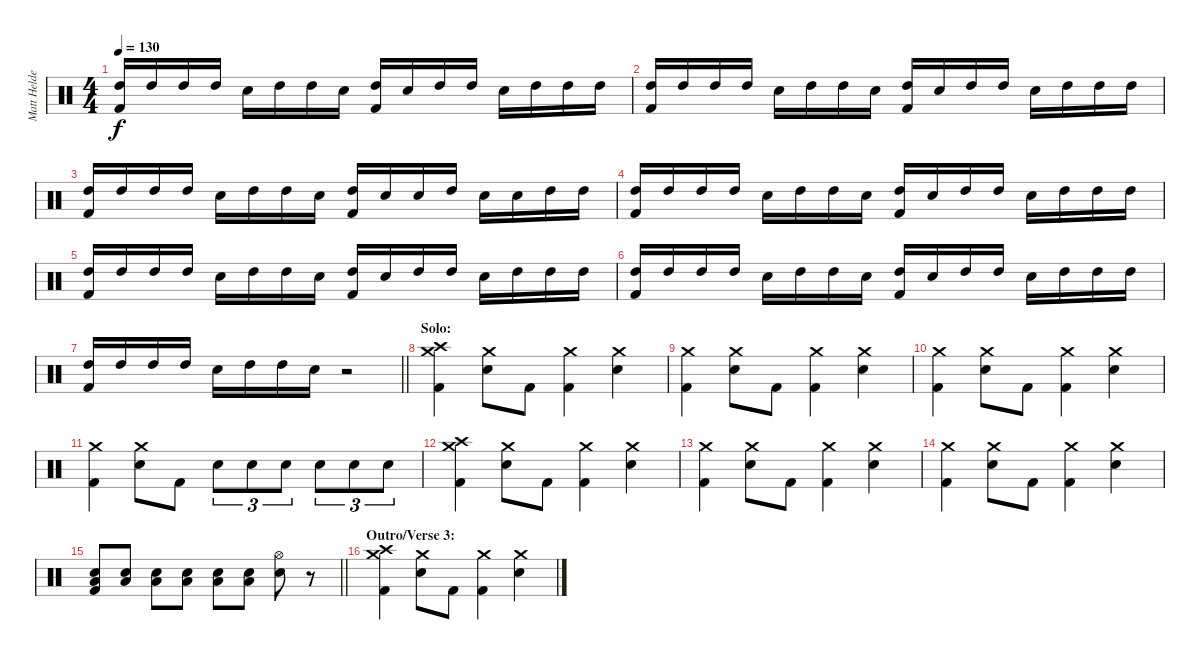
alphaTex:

\track ("Matt Helders (Percussion)" "Matt Helde") {instrument percussion}
\staff {score}
\articulation defaults
\ts (4 4)
\tempo 130
\clef neutral
\ks c
("High Tom (hit)" "Kick (hit) 2").16{dy f} "High Tom (hit)".16 "High Tom (hit)".16 "High Tom (hit)".16 "Snare (hit) 2".16 "High Tom (hit)".16 "High Tom (hit)".16 "Snare (hit) 2".16 ("High Tom (hit)" "Kick (hit) 2").16 "Snare (hit) 2".16 "High Tom (hit)".16 "High Tom (hit)".16 "Snare (hit) 2".16 "High Tom (hit)".16 "High Tom (hit)".16 "High Tom (hit)".16 |
("High Tom (hit)" "Kick (hit) 2").16 "High Tom (hit)".16 "High Tom (hit)".16 "High Tom (hit)".16 "Snare (hit) 2".16 "High Tom (hit)".16 "High Tom (hit)".16 "Snare (hit) 2".16 ("High Tom (hit)" "Kick (hit) 2").16 "Snare (hit) 2".16 "High Tom (hit)".16 "High Tom (hit)".16 "Snare (hit) 2".16 "High Tom (hit)".16 "High Tom (hit)".16 "High Tom (hit)".16 |
("High Tom (hit)" "Kick (hit) 2").16 "High Tom (hit)".16 "High Tom (hit)".16 "High Tom (hit)".16 "Snare (hit) 2".16 "High Tom (hit)".16 "High Tom (hit)".16 "Snare (hit) 2".16 ("High Tom (hit)" "Kick (hit) 2").16 "Snare (hit) 2".16 "Snare (hit) 2".16 "High Tom (hit)".16 "Snare (hit) 2".16 "Snare (hit) 2".16 "High Tom (hit)".16 "High Tom (hit)".16 |
("High Tom (hit)" "Kick (hit) 2").16 "High Tom (hit)".16 "High Tom (hit)".16 "High Tom (hit)".16 "Snare (hit) 2".16 "High Tom (hit)".16 "High Tom (hit)".16 "Snare (hit) 2".16 ("High Tom (hit)" "Kick (hit) 2").16 "Snare (hit) 2".16 "High Tom (hit)".16 "High Tom (hit)".16 "Snare (hit) 2".16 "High Tom (hit)".16 "High Tom (hit)".16 "High Tom (hit)".16 |
("High Tom (hit)" "Kick (hit) 2").16 "High Tom (hit)".16 "High Tom (hit)".16 "High Tom (hit)".16 "Snare (hit) 2".16 "High Tom (hit)".16 "High Tom (hit)".16 "Snare (hit) 2".16 ("High Tom (hit)" "Kick (hit) 2").16 "Snare (hit) 2".16 "High Tom (hit)".16 "High Tom (hit)".16 "Snare (hit) 2".16 "High Tom (hit)".16 "High Tom (hit)".16 "High Tom (hit)".16 |
("High Tom (hit)" "Kick (hit) 2").16 "High Tom (hit)".16 "High Tom (hit)".16 "High Tom (hit)".16 "Snare (hit) 2".16 "High Tom (hit)".16 "High Tom (hit)".16 "Snare (hit) 2".16 ("High Tom (hit)" "Kick (hit) 2").16 "Snare (hit) 2".16 "High Tom (hit)".16 "High Tom (hit)".16 "Snare (hit) 2".16 "High Tom (hit)".16 "High Tom (hit)".16 "High Tom (hit)".16 |
\barLineRight lightlight
("High Tom (hit)" "Kick (hit) 2").16 "High Tom (hit)".16 "High Tom (hit)".16 "High Tom (hit)".16 "Snare (hit) 2".16 "High Tom (hit)".16 "High Tom (hit)".16 "Snare (hit) 2".16 r.2 |
\section ("" "Solo:")
("Crash medium (hit)" "Crash high (hit)" "Kick (hit) 2").4 ("Crash medium (hit)" "Snare (hit) 2").8 "Kick (hit) 2".8 ("Crash medium (hit)" "Kick (hit) 2").4 ("Crash medium (hit)" "Snare (hit) 2").4 |
("Crash medium (hit)" "Kick (hit) 2").4 ("Crash medium (hit)" "Snare (hit) 2").8 "Kick (hit) 2".8 ("Crash medium (hit)" "Kick (hit) 2").4 ("Crash medium (hit)" "Snare (hit) 2").4 |
("Crash medium (hit)" "Kick (hit) 2").4 ("Crash medium (hit)" "Snare (hit) 2").8 "Kick (hit) 2".8 ("Crash medium (hit)" "Kick (hit) 2").4 ("Crash medium (hit)" "Snare (hit) 2").4 |
("Crash medium (hit)" "Kick (hit) 2").4 ("Crash medium (hit)" "Snare (hit) 2").8 "Kick (hit) 2".8 "Snare (hit) 2".8{tu (3 2)} "Snare (hit) 2".8{tu (3 2)} "Snare (hit) 2".8{tu (3 2)} "Snare (hit) 2".8{tu (3 2)} "Snare (hit) 2".8{tu (3 2)} "Snare (hit) 2".8{tu (3 2)} |
("Crash medium (hit)" "Crash high (hit)" "Kick (hit) 2").4 ("Crash medium (hit)" "Snare (hit) 2").8 "Kick (hit) 2".8 ("Crash medium (hit)" "Kick (hit) 2").4 ("Crash medium (hit)" "Snare (hit) 2").4 |
("Crash medium (hit)" "Kick (hit) 2").4 ("Crash medium (hit)" "Snare (hit) 2").8 "Kick (hit) 2".8 ("Crash medium (hit)" "Kick (hit) 2").4 ("Crash medium (hit)" "Snare (hit) 2").4 |
("Crash medium (hit)" "Kick (hit) 2").4 ("Crash medium (hit)" "Snare (hit) 2").8 "Kick (hit) 2".8 ("Crash medium (hit)" "Kick (hit) 2").4 ("Crash medium (hit)" "Snare (hit) 2").4 |
\barLineRight lightlight
("Snare (hit) 2" "Low Tom (hit)" "Kick (hit) 2").8 ("Snare (hit) 2" "Low Tom (hit)").8 ("Snare (hit) 2" "Low Tom (hit)").8 ("Snare (hit) 2" "Low Tom (hit)").8 ("Snare (hit) 2" "Low Tom (hit)").8 ("Snare (hit) 2" "Low Tom (hit)").8 ("Hi-Hat (open)" "Snare (hit) 2").8 r.8 |
\section ("" "Outro/Verse 3:")
("Crash medium (hit)" "Crash high (hit)" "Kick (hit) 2").4 ("Crash medium (hit)" "Snare (hit) 2").8 "Kick (hit) 2".8 ("Crash medium (hit)" "Kick (hit) 2").4 ("Crash medium (hit)" "Snare (hit) 2").4
